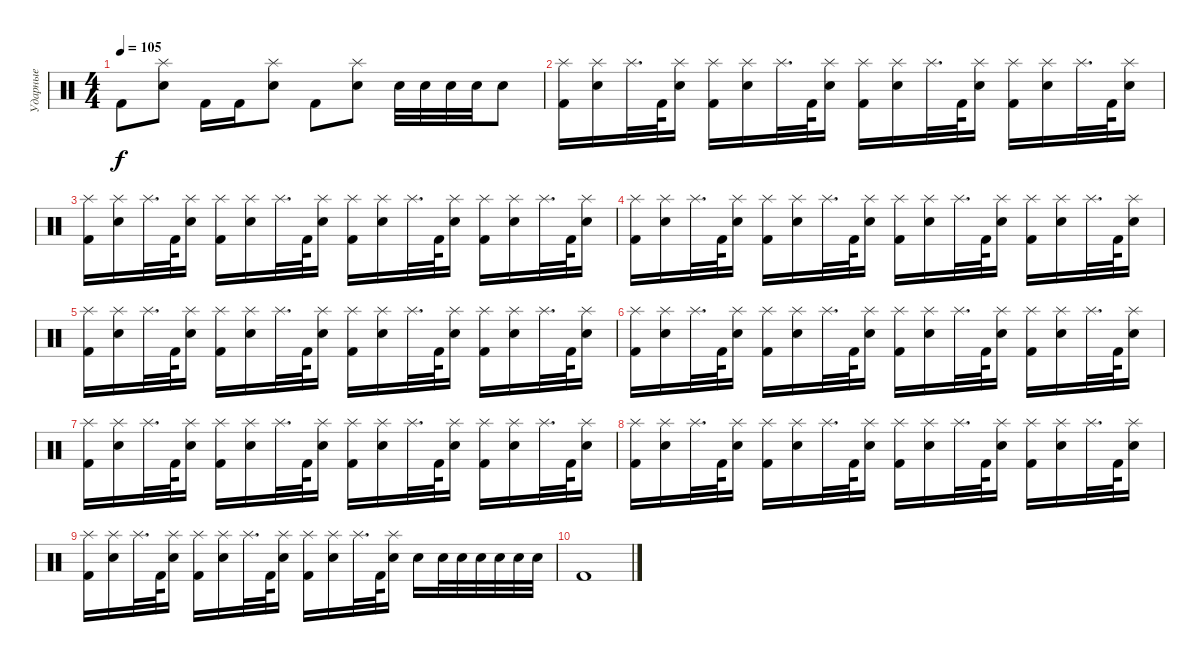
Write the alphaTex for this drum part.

\track ("Ударные" "Ударные") {instrument percussion}
\staff {score}
\articulation defaults
\ts (4 4)
\tempo 105
\clef neutral
\ks c "Kick (hit) 2".8{dy f}
("Splash (hit)" "Electric Snare (hit)").8 "Kick (hit) 2".16 "Kick (hit) 2".16 ("Splash (hit)" "Electric Snare (hit)").8 "Kick (hit) 2".8 ("Splash (hit)" "Electric Snare (hit)").8 "Electric Snare (hit)".32 "Electric Snare (hit)".32 "Electric Snare (hit)".32 "Electric Snare (hit)".32 "Electric Snare (hit)".8 |
("Splash (hit)" "Kick (hit) 2").16 ("Splash (hit)" "Electric Snare (hit)").16 "Splash (hit)".32{d} "Kick (hit) 2".64 ("Splash (hit)" "Electric Snare (hit)").16 ("Splash (hit)" "Kick (hit) 2").16 ("Splash (hit)" "Electric Snare (hit)").16 "Splash (hit)".32{d} "Kick (hit) 2".64 ("Splash (hit)" "Electric Snare (hit)").16 ("Splash (hit)" "Kick (hit) 2").16 ("Splash (hit)" "Electric Snare (hit)").16 "Splash (hit)".32{d} "Kick (hit) 2".64 ("Splash (hit)" "Electric Snare (hit)").16 ("Splash (hit)" "Kick (hit) 2").16 ("Splash (hit)" "Electric Snare (hit)").16 "Splash (hit)".32{d} "Kick (hit) 2".64 ("Splash (hit)" "Electric Snare (hit)").16 |
("Splash (hit)" "Kick (hit) 2").16 ("Splash (hit)" "Electric Snare (hit)").16 "Splash (hit)".32{d} "Kick (hit) 2".64 ("Splash (hit)" "Electric Snare (hit)").16 ("Splash (hit)" "Kick (hit) 2").16 ("Splash (hit)" "Electric Snare (hit)").16 "Splash (hit)".32{d} "Kick (hit) 2".64 ("Splash (hit)" "Electric Snare (hit)").16 ("Splash (hit)" "Kick (hit) 2").16 ("Splash (hit)" "Electric Snare (hit)").16 "Splash (hit)".32{d} "Kick (hit) 2".64 ("Splash (hit)" "Electric Snare (hit)").16 ("Splash (hit)" "Kick (hit) 2").16 ("Splash (hit)" "Electric Snare (hit)").16 "Splash (hit)".32{d} "Kick (hit) 2".64 ("Splash (hit)" "Electric Snare (hit)").16 |
("Splash (hit)" "Kick (hit) 2").16 ("Splash (hit)" "Electric Snare (hit)").16 "Splash (hit)".32{d} "Kick (hit) 2".64 ("Splash (hit)" "Electric Snare (hit)").16 ("Splash (hit)" "Kick (hit) 2").16 ("Splash (hit)" "Electric Snare (hit)").16 "Splash (hit)".32{d} "Kick (hit) 2".64 ("Splash (hit)" "Electric Snare (hit)").16 ("Splash (hit)" "Kick (hit) 2").16 ("Splash (hit)" "Electric Snare (hit)").16 "Splash (hit)".32{d} "Kick (hit) 2".64 ("Splash (hit)" "Electric Snare (hit)").16 ("Splash (hit)" "Kick (hit) 2").16 ("Splash (hit)" "Electric Snare (hit)").16 "Splash (hit)".32{d} "Kick (hit) 2".64 ("Splash (hit)" "Electric Snare (hit)").16 |
("Splash (hit)" "Kick (hit) 2").16 ("Splash (hit)" "Electric Snare (hit)").16 "Splash (hit)".32{d} "Kick (hit) 2".64 ("Splash (hit)" "Electric Snare (hit)").16 ("Splash (hit)" "Kick (hit) 2").16 ("Splash (hit)" "Electric Snare (hit)").16 "Splash (hit)".32{d} "Kick (hit) 2".64 ("Splash (hit)" "Electric Snare (hit)").16 ("Splash (hit)" "Kick (hit) 2").16 ("Splash (hit)" "Electric Snare (hit)").16 "Splash (hit)".32{d} "Kick (hit) 2".64 ("Splash (hit)" "Electric Snare (hit)").16 ("Splash (hit)" "Kick (hit) 2").16 ("Splash (hit)" "Electric Snare (hit)").16 "Splash (hit)".32{d} "Kick (hit) 2".64 ("Splash (hit)" "Electric Snare (hit)").16 |
("Splash (hit)" "Kick (hit) 2").16 ("Splash (hit)" "Electric Snare (hit)").16 "Splash (hit)".32{d} "Kick (hit) 2".64 ("Splash (hit)" "Electric Snare (hit)").16 ("Splash (hit)" "Kick (hit) 2").16 ("Splash (hit)" "Electric Snare (hit)").16 "Splash (hit)".32{d} "Kick (hit) 2".64 ("Splash (hit)" "Electric Snare (hit)").16 ("Splash (hit)" "Kick (hit) 2").16 ("Splash (hit)" "Electric Snare (hit)").16 "Splash (hit)".32{d} "Kick (hit) 2".64 ("Splash (hit)" "Electric Snare (hit)").16 ("Splash (hit)" "Kick (hit) 2").16 ("Splash (hit)" "Electric Snare (hit)").16 "Splash (hit)".32{d} "Kick (hit) 2".64 ("Splash (hit)" "Electric Snare (hit)").16 |
("Splash (hit)" "Kick (hit) 2").16 ("Splash (hit)" "Electric Snare (hit)").16 "Splash (hit)".32{d} "Kick (hit) 2".64 ("Splash (hit)" "Electric Snare (hit)").16 ("Splash (hit)" "Kick (hit) 2").16 ("Splash (hit)" "Electric Snare (hit)").16 "Splash (hit)".32{d} "Kick (hit) 2".64 ("Splash (hit)" "Electric Snare (hit)").16 ("Splash (hit)" "Kick (hit) 2").16 ("Splash (hit)" "Electric Snare (hit)").16 "Splash (hit)".32{d} "Kick (hit) 2".64 ("Splash (hit)" "Electric Snare (hit)").16 ("Splash (hit)" "Kick (hit) 2").16 ("Splash (hit)" "Electric Snare (hit)").16 "Splash (hit)".32{d} "Kick (hit) 2".64 ("Splash (hit)" "Electric Snare (hit)").16 |
("Splash (hit)" "Kick (hit) 2").16 ("Splash (hit)" "Electric Snare (hit)").16 "Splash (hit)".32{d} "Kick (hit) 2".64 ("Splash (hit)" "Electric Snare (hit)").16 ("Splash (hit)" "Kick (hit) 2").16 ("Splash (hit)" "Electric Snare (hit)").16 "Splash (hit)".32{d} "Kick (hit) 2".64 ("Splash (hit)" "Electric Snare (hit)").16 ("Splash (hit)" "Kick (hit) 2").16 ("Splash (hit)" "Electric Snare (hit)").16 "Splash (hit)".32{d} "Kick (hit) 2".64 ("Splash (hit)" "Electric Snare (hit)").16 ("Splash (hit)" "Kick (hit) 2").16 ("Splash (hit)" "Electric Snare (hit)").16 "Splash (hit)".32{d} "Kick (hit) 2".64 ("Splash (hit)" "Electric Snare (hit)").16 |
("Splash (hit)" "Kick (hit) 2").16 ("Splash (hit)" "Electric Snare (hit)").16 "Splash (hit)".32{d} "Kick (hit) 2".64 ("Splash (hit)" "Electric Snare (hit)").16 ("Splash (hit)" "Kick (hit) 2").16 ("Splash (hit)" "Electric Snare (hit)").16 "Splash (hit)".32{d} "Kick (hit) 2".64 ("Splash (hit)" "Electric Snare (hit)").16 ("Splash (hit)" "Kick (hit) 2").16 ("Splash (hit)" "Electric Snare (hit)").16 "Splash (hit)".32{d} "Kick (hit) 2".64 ("Splash (hit)" "Electric Snare (hit)").16 "Electric Snare (hit)".16 "Electric Snare (hit)".32 "Electric Snare (hit)".32 "Electric Snare (hit)".32 "Electric Snare (hit)".32 "Electric Snare (hit)".32 "Electric Snare (hit)".32 |
"Kick (hit) 2".1
